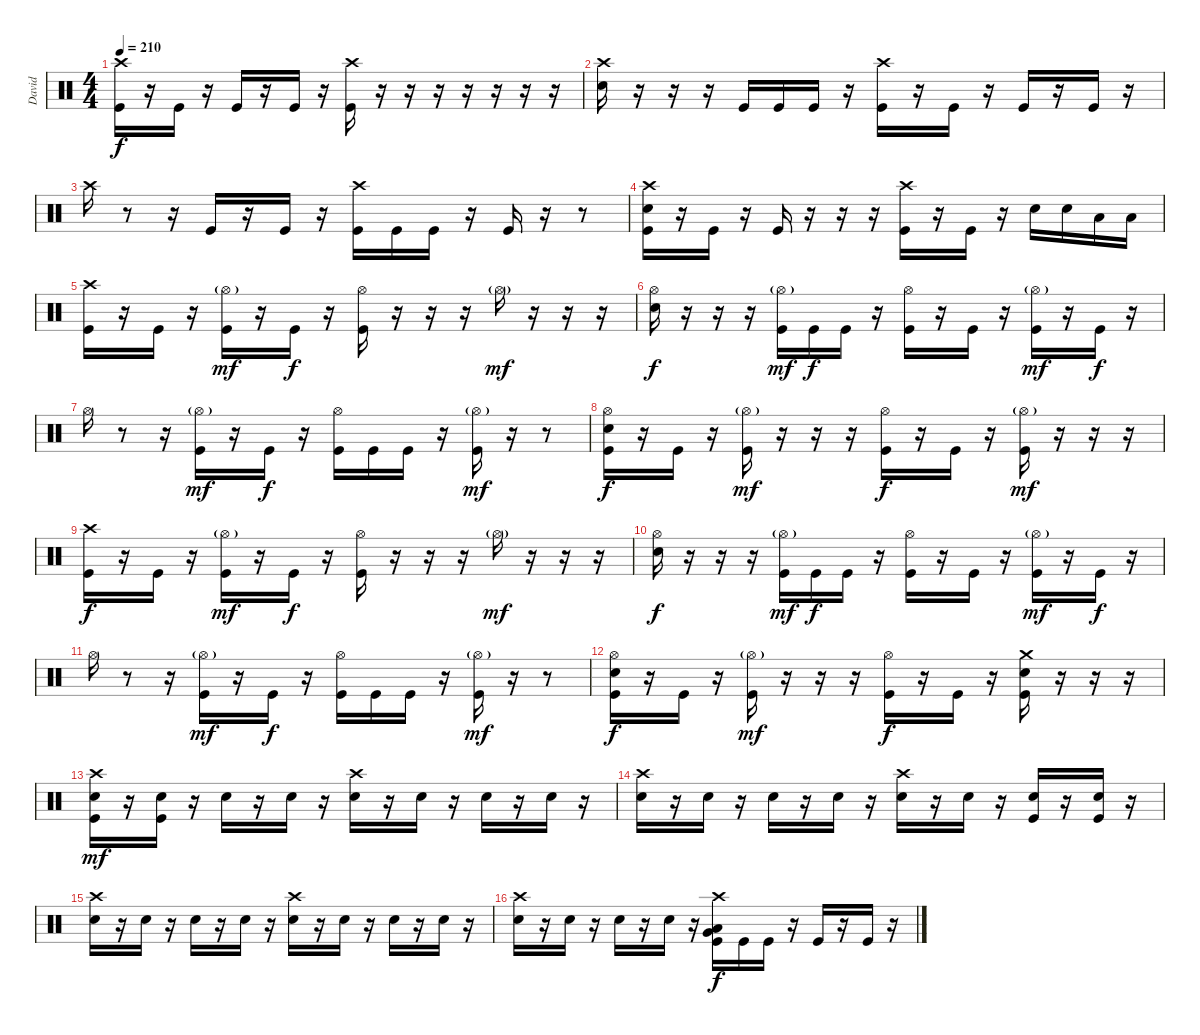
\track ("David" "David") {instrument percussion}
\staff {score}
\articulation defaults
\ts (4 4)
\tempo 210
\clef neutral
\ks c
("Crash high (hit)" "Kick (hit)").16{dy f} r.16 "Kick (hit)".16 r.16 "Kick (hit)".16 r.16 "Kick (hit)".16 r.16 ("Crash high (hit)" "Kick (hit)").16 r.16 r.16 r.16 r.16 r.16 r.16 r.16 |
("Crash high (hit)" "Electric Snare (hit)").16 r.16 r.16 r.16 "Kick (hit)".16 "Kick (hit)".16 "Kick (hit)".16 r.16 ("Crash high (hit)" "Kick (hit)").16 r.16 "Kick (hit)".16 r.16 "Kick (hit)".16 r.16 "Kick (hit)".16 r.16 |
"Crash high (hit)".16 r.8 r.16 "Kick (hit)".16 r.16 "Kick (hit)".16 r.16 ("Crash high (hit)" "Kick (hit)").16 "Kick (hit)".16 "Kick (hit)".16 r.16 "Kick (hit)".16 r.16 r.8 |
("Crash high (hit)" "Electric Snare (hit)" "Kick (hit)").16 r.16 "Kick (hit)".16 r.16 "Kick (hit)".16 r.16 r.16 r.16 ("Crash high (hit)" "Kick (hit)").16 r.16 "Kick (hit)".16 r.16 "Electric Snare (hit)".16 "Electric Snare (hit)".16 "Low Tom (hit)".16 "Low Tom (hit)".16 |
("Crash high (hit)" "Kick (hit)").16 r.16 "Kick (hit)".16 r.16 ("Hi-Hat (open)"{g} "Kick (hit)").16{dy mf} r.16 "Kick (hit)".16{dy f} r.16 ("Hi-Hat (open)" "Kick (hit)").16 r.16 r.16 r.16 "Hi-Hat (open)"{g}.16{dy mf} r.16 r.16 r.16 |
("Hi-Hat (open)" "Electric Snare (hit)").16{dy f} r.16 r.16 r.16 ("Hi-Hat (open)"{g} "Kick (hit)").16{dy mf} "Kick (hit)".16{dy f} "Kick (hit)".16 r.16 ("Hi-Hat (open)" "Kick (hit)").16 r.16 "Kick (hit)".16 r.16 ("Hi-Hat (open)"{g} "Kick (hit)").16{dy mf} r.16 "Kick (hit)".16{dy f} r.16 |
"Hi-Hat (open)".16 r.8 r.16 ("Hi-Hat (open)"{g} "Kick (hit)").16{dy mf} r.16 "Kick (hit)".16{dy f} r.16 ("Hi-Hat (open)" "Kick (hit)").16 "Kick (hit)".16 "Kick (hit)".16 r.16 ("Hi-Hat (open)"{g} "Kick (hit)").16{dy mf} r.16 r.8 |
("Hi-Hat (open)" "Electric Snare (hit)" "Kick (hit)").16{dy f} r.16 "Kick (hit)".16 r.16 ("Hi-Hat (open)"{g} "Kick (hit)").16{dy mf} r.16 r.16 r.16 ("Hi-Hat (open)" "Kick (hit)").16{dy f} r.16 "Kick (hit)".16 r.16 ("Hi-Hat (open)"{g} "Kick (hit)").16{dy mf} r.16 r.16 r.16 |
("Crash high (hit)" "Kick (hit)").16{dy f} r.16 "Kick (hit)".16 r.16 ("Hi-Hat (open)"{g} "Kick (hit)").16{dy mf} r.16 "Kick (hit)".16{dy f} r.16 ("Hi-Hat (open)" "Kick (hit)").16 r.16 r.16 r.16 "Hi-Hat (open)"{g}.16{dy mf} r.16 r.16 r.16 |
("Hi-Hat (open)" "Electric Snare (hit)").16{dy f} r.16 r.16 r.16 ("Hi-Hat (open)"{g} "Kick (hit)").16{dy mf} "Kick (hit)".16{dy f} "Kick (hit)".16 r.16 ("Hi-Hat (open)" "Kick (hit)").16 r.16 "Kick (hit)".16 r.16 ("Hi-Hat (open)"{g} "Kick (hit)").16{dy mf} r.16 "Kick (hit)".16{dy f} r.16 |
"Hi-Hat (open)".16 r.8 r.16 ("Hi-Hat (open)"{g} "Kick (hit)").16{dy mf} r.16 "Kick (hit)".16{dy f} r.16 ("Hi-Hat (open)" "Kick (hit)").16 "Kick (hit)".16 "Kick (hit)".16 r.16 ("Hi-Hat (open)"{g} "Kick (hit)").16{dy mf} r.16 r.8 |
("Hi-Hat (open)" "Electric Snare (hit)" "Kick (hit)").16{dy f} r.16 "Kick (hit)".16 r.16 ("Hi-Hat (open)"{g} "Kick (hit)").16{dy mf} r.16 r.16 r.16 ("Hi-Hat (open)" "Kick (hit)").16{dy f} r.16 "Kick (hit)".16 r.16 ("Crash medium (hit)" "Electric Snare (hit)" "Kick (hit)").16 r.16 r.16 r.16 |
("Crash high (hit)" "Electric Snare (hit)" "Kick (hit)").16{dy mf} r.16 ("Electric Snare (hit)" "Kick (hit)").16 r.16 "Electric Snare (hit)".16 r.16 "Electric Snare (hit)".16 r.16 ("Crash high (hit)" "Electric Snare (hit)").16 r.16 "Electric Snare (hit)".16 r.16 "Electric Snare (hit)".16 r.16 "Electric Snare (hit)".16 r.16 |
("Crash high (hit)" "Electric Snare (hit)").16 r.16 "Electric Snare (hit)".16 r.16 "Electric Snare (hit)".16 r.16 "Electric Snare (hit)".16 r.16 ("Crash high (hit)" "Electric Snare (hit)").16 r.16 "Electric Snare (hit)".16 r.16 ("Electric Snare (hit)" "Kick (hit)").16 r.16 ("Electric Snare (hit)" "Kick (hit)").16 r.16 |
("Crash high (hit)" "Electric Snare (hit)").16 r.16 "Electric Snare (hit)".16 r.16 "Electric Snare (hit)".16 r.16 "Electric Snare (hit)".16 r.16 ("Crash high (hit)" "Electric Snare (hit)").16 r.16 "Electric Snare (hit)".16 r.16 "Electric Snare (hit)".16 r.16 "Electric Snare (hit)".16 r.16 |
("Crash high (hit)" "Electric Snare (hit)").16 r.16 "Electric Snare (hit)".16 r.16 "Electric Snare (hit)".16 r.16 "Electric Snare (hit)".16 r.16 ("Crash high (hit)" "Low Tom (hit)" "Very Low Tom (hit)" "Kick (hit)").16{dy f} "Kick (hit)".16 "Kick (hit)".16 r.16 "Kick (hit)".16 r.16 "Kick (hit)".16 r.16
